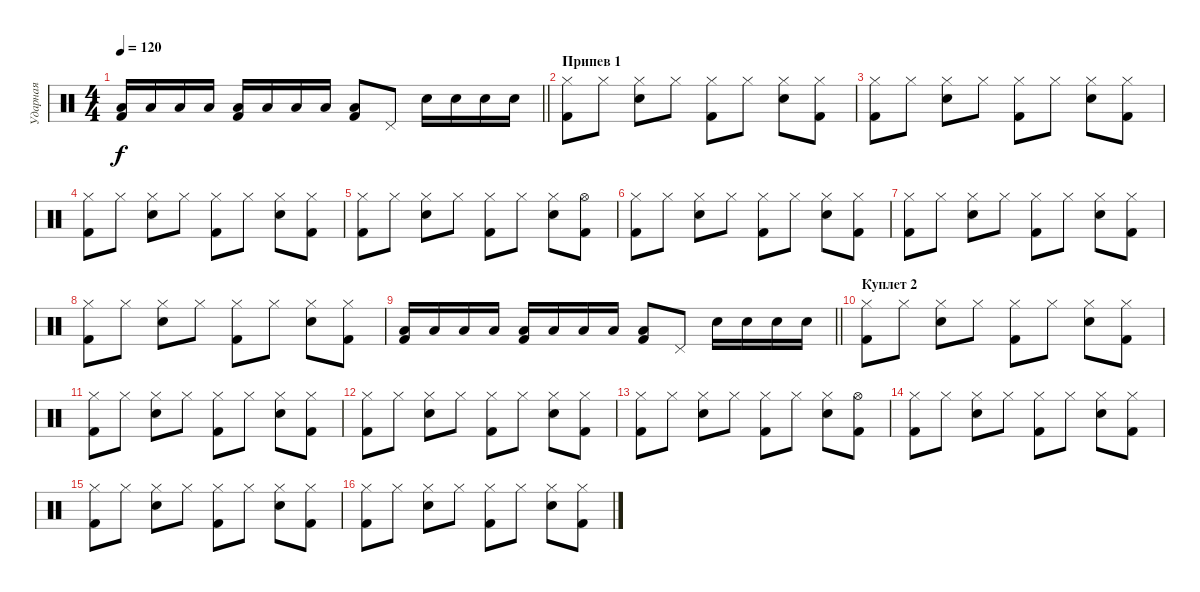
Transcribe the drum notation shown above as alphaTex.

\track ("Ударная" "Ударная") {instrument percussion}
\staff {score}
\articulation defaults
\ts (4 4)
\tempo 120
\clef neutral
\barLineRight lightlight
\ks c
("Low Tom (hit)" "Kick (hit) 2").16{dy f} "Low Tom (hit)".16 "Low Tom (hit)".16 "Low Tom (hit)".16 ("Low Tom (hit)" "Kick (hit) 2").16 "Low Tom (hit)".16 "Low Tom (hit)".16 "Low Tom (hit)".16 ("Low Tom (hit)" "Kick (hit) 2").8 "Pedal Hi-Hat (hit)".8 "Snare (hit) 2".16 "Snare (hit) 2".16 "Snare (hit) 2".16 "Snare (hit) 2".16 |
\section ("" "Припев 1")
("Hi-Hat (closed)" "Kick (hit) 2").8 "Hi-Hat (closed)".8 ("Hi-Hat (closed)" "Electric Snare (hit)").8 "Hi-Hat (closed)".8 ("Hi-Hat (closed)" "Kick (hit) 2").8 "Hi-Hat (closed)".8 ("Hi-Hat (closed)" "Electric Snare (hit)").8 ("Hi-Hat (closed)" "Kick (hit) 2").8 |
("Hi-Hat (closed)" "Kick (hit) 2").8 "Hi-Hat (closed)".8 ("Hi-Hat (closed)" "Electric Snare (hit)").8 "Hi-Hat (closed)".8 ("Hi-Hat (closed)" "Kick (hit) 2").8 "Hi-Hat (closed)".8 ("Hi-Hat (closed)" "Electric Snare (hit)").8 ("Hi-Hat (closed)" "Kick (hit) 2").8 |
("Hi-Hat (closed)" "Kick (hit) 2").8 "Hi-Hat (closed)".8 ("Hi-Hat (closed)" "Electric Snare (hit)").8 "Hi-Hat (closed)".8 ("Hi-Hat (closed)" "Kick (hit) 2").8 "Hi-Hat (closed)".8 ("Hi-Hat (closed)" "Electric Snare (hit)").8 ("Hi-Hat (closed)" "Kick (hit) 2").8 |
("Hi-Hat (closed)" "Kick (hit) 2").8 "Hi-Hat (closed)".8 ("Hi-Hat (closed)" "Electric Snare (hit)").8 "Hi-Hat (closed)".8 ("Hi-Hat (closed)" "Kick (hit) 2").8 "Hi-Hat (closed)".8 ("Hi-Hat (closed)" "Electric Snare (hit)").8 ("Hi-Hat (open)" "Kick (hit) 2").8 |
("Hi-Hat (closed)" "Kick (hit) 2").8 "Hi-Hat (closed)".8 ("Hi-Hat (closed)" "Electric Snare (hit)").8 "Hi-Hat (closed)".8 ("Hi-Hat (closed)" "Kick (hit) 2").8 "Hi-Hat (closed)".8 ("Hi-Hat (closed)" "Electric Snare (hit)").8 ("Hi-Hat (closed)" "Kick (hit) 2").8 |
("Hi-Hat (closed)" "Kick (hit) 2").8 "Hi-Hat (closed)".8 ("Hi-Hat (closed)" "Electric Snare (hit)").8 "Hi-Hat (closed)".8 ("Hi-Hat (closed)" "Kick (hit) 2").8 "Hi-Hat (closed)".8 ("Hi-Hat (closed)" "Electric Snare (hit)").8 ("Hi-Hat (closed)" "Kick (hit) 2").8 |
("Hi-Hat (closed)" "Kick (hit) 2").8 "Hi-Hat (closed)".8 ("Hi-Hat (closed)" "Electric Snare (hit)").8 "Hi-Hat (closed)".8 ("Hi-Hat (closed)" "Kick (hit) 2").8 "Hi-Hat (closed)".8 ("Hi-Hat (closed)" "Electric Snare (hit)").8 ("Hi-Hat (closed)" "Kick (hit) 2").8 |
\barLineRight lightlight
("Low Tom (hit)" "Kick (hit) 2").16 "Low Tom (hit)".16 "Low Tom (hit)".16 "Low Tom (hit)".16 ("Low Tom (hit)" "Kick (hit) 2").16 "Low Tom (hit)".16 "Low Tom (hit)".16 "Low Tom (hit)".16 ("Low Tom (hit)" "Kick (hit) 2").8 "Pedal Hi-Hat (hit)".8 "Snare (hit) 2".16 "Snare (hit) 2".16 "Snare (hit) 2".16 "Snare (hit) 2".16 |
\section ("" "Куплет 2")
("Hi-Hat (closed)" "Kick (hit) 2").8 "Hi-Hat (closed)".8 ("Hi-Hat (closed)" "Electric Snare (hit)").8 "Hi-Hat (closed)".8 ("Hi-Hat (closed)" "Kick (hit) 2").8 "Hi-Hat (closed)".8 ("Hi-Hat (closed)" "Electric Snare (hit)").8 ("Hi-Hat (closed)" "Kick (hit) 2").8 |
("Hi-Hat (closed)" "Kick (hit) 2").8 "Hi-Hat (closed)".8 ("Hi-Hat (closed)" "Electric Snare (hit)").8 "Hi-Hat (closed)".8 ("Hi-Hat (closed)" "Kick (hit) 2").8 "Hi-Hat (closed)".8 ("Hi-Hat (closed)" "Electric Snare (hit)").8 ("Hi-Hat (closed)" "Kick (hit) 2").8 |
("Hi-Hat (closed)" "Kick (hit) 2").8 "Hi-Hat (closed)".8 ("Hi-Hat (closed)" "Electric Snare (hit)").8 "Hi-Hat (closed)".8 ("Hi-Hat (closed)" "Kick (hit) 2").8 "Hi-Hat (closed)".8 ("Hi-Hat (closed)" "Electric Snare (hit)").8 ("Hi-Hat (closed)" "Kick (hit) 2").8 |
("Hi-Hat (closed)" "Kick (hit) 2").8 "Hi-Hat (closed)".8 ("Hi-Hat (closed)" "Electric Snare (hit)").8 "Hi-Hat (closed)".8 ("Hi-Hat (closed)" "Kick (hit) 2").8 "Hi-Hat (closed)".8 ("Hi-Hat (closed)" "Electric Snare (hit)").8 ("Hi-Hat (open)" "Kick (hit) 2").8 |
("Hi-Hat (closed)" "Kick (hit) 2").8 "Hi-Hat (closed)".8 ("Hi-Hat (closed)" "Electric Snare (hit)").8 "Hi-Hat (closed)".8 ("Hi-Hat (closed)" "Kick (hit) 2").8 "Hi-Hat (closed)".8 ("Hi-Hat (closed)" "Electric Snare (hit)").8 ("Hi-Hat (closed)" "Kick (hit) 2").8 |
("Hi-Hat (closed)" "Kick (hit) 2").8 "Hi-Hat (closed)".8 ("Hi-Hat (closed)" "Electric Snare (hit)").8 "Hi-Hat (closed)".8 ("Hi-Hat (closed)" "Kick (hit) 2").8 "Hi-Hat (closed)".8 ("Hi-Hat (closed)" "Electric Snare (hit)").8 ("Hi-Hat (closed)" "Kick (hit) 2").8 |
("Hi-Hat (closed)" "Kick (hit) 2").8 "Hi-Hat (closed)".8 ("Hi-Hat (closed)" "Electric Snare (hit)").8 "Hi-Hat (closed)".8 ("Hi-Hat (closed)" "Kick (hit) 2").8 "Hi-Hat (closed)".8 ("Hi-Hat (closed)" "Electric Snare (hit)").8 ("Hi-Hat (closed)" "Kick (hit) 2").8
